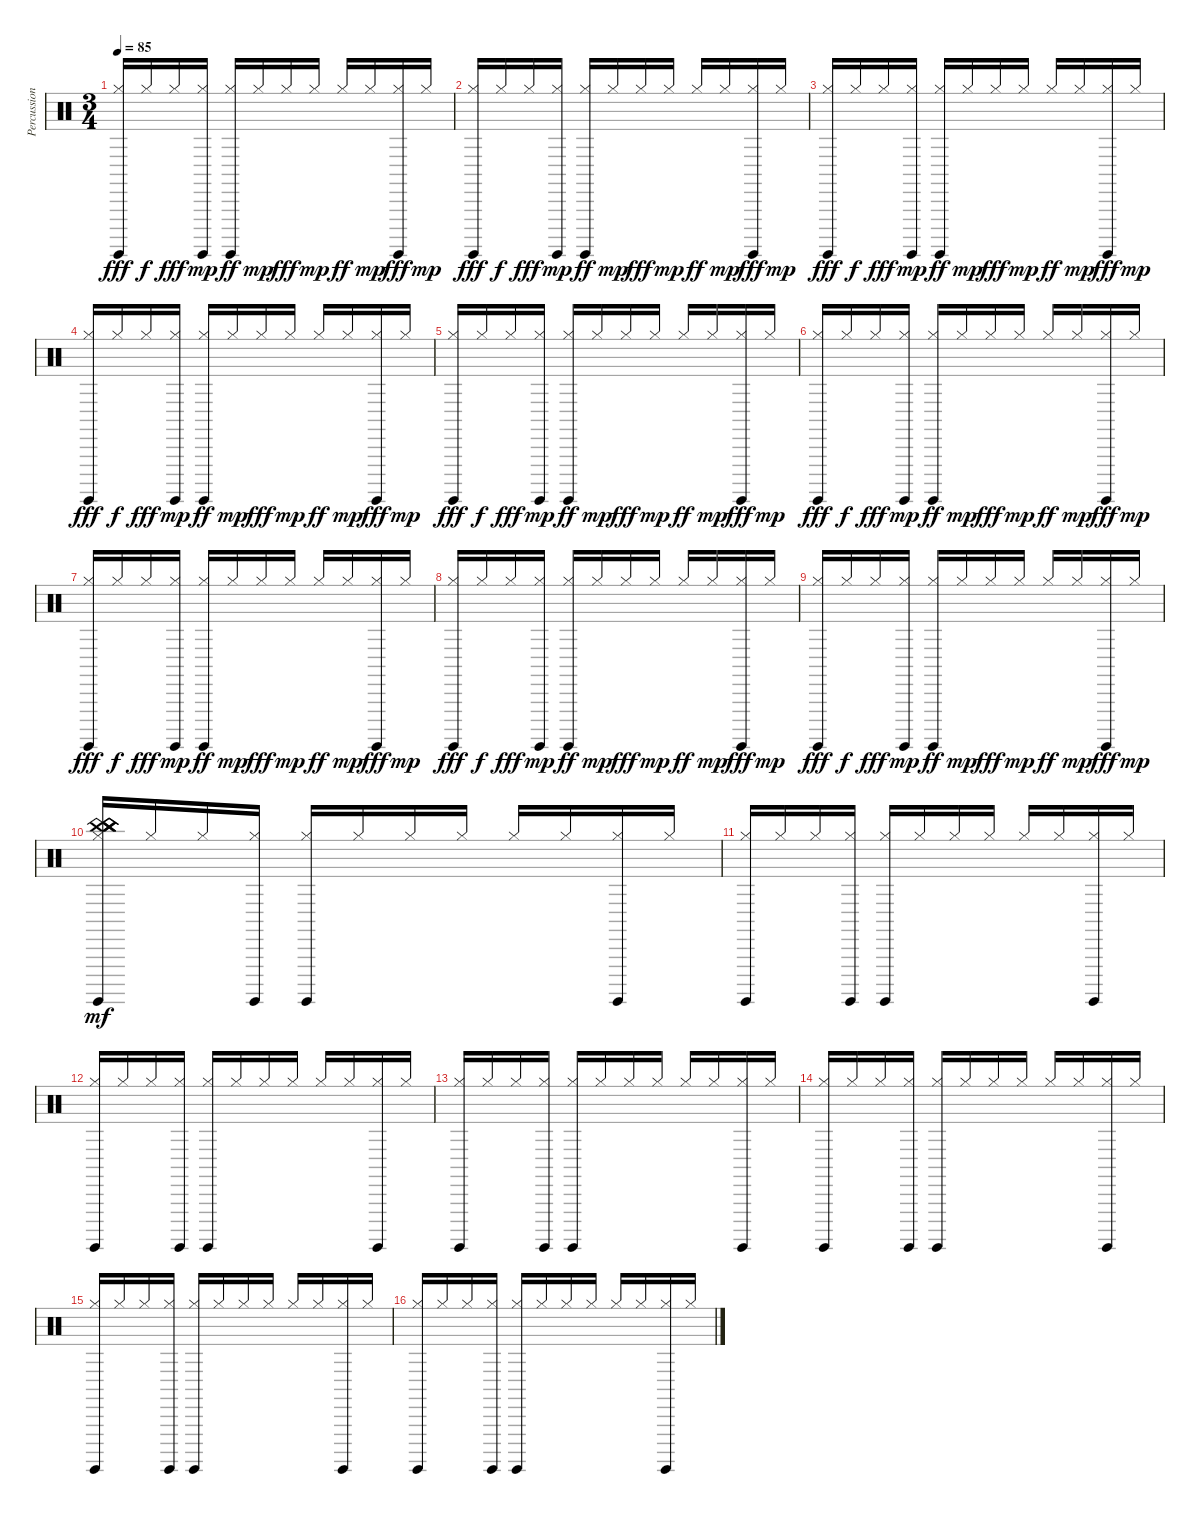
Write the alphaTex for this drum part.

\track ("Percussion" "Percussion") {instrument percussion}
\staff {score}
\articulation defaults
\ts (3 4)
\tempo 85
\clef neutral
\ks c
("Surdo (hit)" "Hi-Hat (closed)").16{dy fff} "Hi-Hat (closed)".16{dy f} "Hi-Hat (closed)".16{dy fff} ("Surdo (hit)" "Hi-Hat (closed)").16{dy mp} ("Surdo (hit)" "Hi-Hat (closed)").16{dy ff} "Hi-Hat (closed)".16{dy mp} "Hi-Hat (closed)".16{dy fff} "Hi-Hat (closed)".16{dy mp} "Hi-Hat (closed)".16{dy ff} "Hi-Hat (closed)".16{dy mp} ("Surdo (hit)" "Hi-Hat (closed)").16{dy fff} "Hi-Hat (closed)".16{dy mp} |
("Surdo (hit)" "Hi-Hat (closed)").16{dy fff volume 7} "Hi-Hat (closed)".16{dy f} "Hi-Hat (closed)".16{dy fff} ("Surdo (hit)" "Hi-Hat (closed)").16{dy mp} ("Surdo (hit)" "Hi-Hat (closed)").16{dy ff} "Hi-Hat (closed)".16{dy mp} "Hi-Hat (closed)".16{dy fff} "Hi-Hat (closed)".16{dy mp} "Hi-Hat (closed)".16{dy ff} "Hi-Hat (closed)".16{dy mp} ("Surdo (hit)" "Hi-Hat (closed)").16{dy fff} "Hi-Hat (closed)".16{dy mp} |
("Surdo (hit)" "Hi-Hat (closed)").16{dy fff} "Hi-Hat (closed)".16{dy f} "Hi-Hat (closed)".16{dy fff} ("Surdo (hit)" "Hi-Hat (closed)").16{dy mp} ("Surdo (hit)" "Hi-Hat (closed)").16{dy ff} "Hi-Hat (closed)".16{dy mp} "Hi-Hat (closed)".16{dy fff} "Hi-Hat (closed)".16{dy mp} "Hi-Hat (closed)".16{dy ff} "Hi-Hat (closed)".16{dy mp} ("Surdo (hit)" "Hi-Hat (closed)").16{dy fff} "Hi-Hat (closed)".16{dy mp} |
("Surdo (hit)" "Hi-Hat (closed)").16{dy fff} "Hi-Hat (closed)".16{dy f} "Hi-Hat (closed)".16{dy fff} ("Surdo (hit)" "Hi-Hat (closed)").16{dy mp} ("Surdo (hit)" "Hi-Hat (closed)").16{dy ff} "Hi-Hat (closed)".16{dy mp} "Hi-Hat (closed)".16{dy fff} "Hi-Hat (closed)".16{dy mp} "Hi-Hat (closed)".16{dy ff} "Hi-Hat (closed)".16{dy mp} ("Surdo (hit)" "Hi-Hat (closed)").16{dy fff} "Hi-Hat (closed)".16{dy mp} |
("Surdo (hit)" "Hi-Hat (closed)").16{dy fff} "Hi-Hat (closed)".16{dy f} "Hi-Hat (closed)".16{dy fff} ("Surdo (hit)" "Hi-Hat (closed)").16{dy mp} ("Surdo (hit)" "Hi-Hat (closed)").16{dy ff} "Hi-Hat (closed)".16{dy mp} "Hi-Hat (closed)".16{dy fff} "Hi-Hat (closed)".16{dy mp} "Hi-Hat (closed)".16{dy ff} "Hi-Hat (closed)".16{dy mp} ("Surdo (hit)" "Hi-Hat (closed)").16{dy fff} "Hi-Hat (closed)".16{dy mp} |
("Surdo (hit)" "Hi-Hat (closed)").16{dy fff volume 7} "Hi-Hat (closed)".16{dy f} "Hi-Hat (closed)".16{dy fff} ("Surdo (hit)" "Hi-Hat (closed)").16{dy mp} ("Surdo (hit)" "Hi-Hat (closed)").16{dy ff} "Hi-Hat (closed)".16{dy mp} "Hi-Hat (closed)".16{dy fff} "Hi-Hat (closed)".16{dy mp} "Hi-Hat (closed)".16{dy ff} "Hi-Hat (closed)".16{dy mp} ("Surdo (hit)" "Hi-Hat (closed)").16{dy fff} "Hi-Hat (closed)".16{dy mp} |
("Surdo (hit)" "Hi-Hat (closed)").16{dy fff} "Hi-Hat (closed)".16{dy f} "Hi-Hat (closed)".16{dy fff} ("Surdo (hit)" "Hi-Hat (closed)").16{dy mp} ("Surdo (hit)" "Hi-Hat (closed)").16{dy ff} "Hi-Hat (closed)".16{dy mp} "Hi-Hat (closed)".16{dy fff} "Hi-Hat (closed)".16{dy mp} "Hi-Hat (closed)".16{dy ff} "Hi-Hat (closed)".16{dy mp} ("Surdo (hit)" "Hi-Hat (closed)").16{dy fff} "Hi-Hat (closed)".16{dy mp} |
("Surdo (hit)" "Hi-Hat (closed)").16{dy fff} "Hi-Hat (closed)".16{dy f} "Hi-Hat (closed)".16{dy fff} ("Surdo (hit)" "Hi-Hat (closed)").16{dy mp} ("Surdo (hit)" "Hi-Hat (closed)").16{dy ff} "Hi-Hat (closed)".16{dy mp} "Hi-Hat (closed)".16{dy fff} "Hi-Hat (closed)".16{dy mp} "Hi-Hat (closed)".16{dy ff} "Hi-Hat (closed)".16{dy mp} ("Surdo (hit)" "Hi-Hat (closed)").16{dy fff} "Hi-Hat (closed)".16{dy mp} |
("Surdo (hit)" "Hi-Hat (closed)").16{dy fff} "Hi-Hat (closed)".16{dy f} "Hi-Hat (closed)".16{dy fff} ("Surdo (hit)" "Hi-Hat (closed)").16{dy mp} ("Surdo (hit)" "Hi-Hat (closed)").16{dy ff} "Hi-Hat (closed)".16{dy mp} "Hi-Hat (closed)".16{dy fff} "Hi-Hat (closed)".16{dy mp} "Hi-Hat (closed)".16{dy ff} "Hi-Hat (closed)".16{dy mp} ("Surdo (hit)" "Hi-Hat (closed)").16{dy fff} "Hi-Hat (closed)".16{dy mp} |
("China (hit)" "China (hit)" "China (hit)" "China (hit)" "Surdo (hit)" "Hi-Hat (closed)").16{dy mf volume 16} "Hi-Hat (closed)".16 "Hi-Hat (closed)".16 ("Surdo (hit)" "Hi-Hat (closed)").16 ("Surdo (hit)" "Hi-Hat (closed)").16 "Hi-Hat (closed)".16 "Hi-Hat (closed)".16 "Hi-Hat (closed)".16 "Hi-Hat (closed)".16 "Hi-Hat (closed)".16 ("Surdo (hit)" "Hi-Hat (closed)").16 "Hi-Hat (closed)".16 |
("Surdo (hit)" "Hi-Hat (closed)").16 "Hi-Hat (closed)".16 "Hi-Hat (closed)".16 ("Surdo (hit)" "Hi-Hat (closed)").16 ("Surdo (hit)" "Hi-Hat (closed)").16 "Hi-Hat (closed)".16 "Hi-Hat (closed)".16 "Hi-Hat (closed)".16 "Hi-Hat (closed)".16 "Hi-Hat (closed)".16 ("Surdo (hit)" "Hi-Hat (closed)").16 "Hi-Hat (closed)".16 |
("Surdo (hit)" "Hi-Hat (closed)").16 "Hi-Hat (closed)".16 "Hi-Hat (closed)".16 ("Surdo (hit)" "Hi-Hat (closed)").16 ("Surdo (hit)" "Hi-Hat (closed)").16 "Hi-Hat (closed)".16 "Hi-Hat (closed)".16 "Hi-Hat (closed)".16 "Hi-Hat (closed)".16 "Hi-Hat (closed)".16 ("Surdo (hit)" "Hi-Hat (closed)").16 "Hi-Hat (closed)".16 |
("Surdo (hit)" "Hi-Hat (closed)").16 "Hi-Hat (closed)".16 "Hi-Hat (closed)".16 ("Surdo (hit)" "Hi-Hat (closed)").16 ("Surdo (hit)" "Hi-Hat (closed)").16 "Hi-Hat (closed)".16 "Hi-Hat (closed)".16 "Hi-Hat (closed)".16 "Hi-Hat (closed)".16 "Hi-Hat (closed)".16 ("Surdo (hit)" "Hi-Hat (closed)").16 "Hi-Hat (closed)".16 |
("Surdo (hit)" "Hi-Hat (closed)").16 "Hi-Hat (closed)".16 "Hi-Hat (closed)".16 ("Surdo (hit)" "Hi-Hat (closed)").16 ("Surdo (hit)" "Hi-Hat (closed)").16 "Hi-Hat (closed)".16 "Hi-Hat (closed)".16 "Hi-Hat (closed)".16 "Hi-Hat (closed)".16 "Hi-Hat (closed)".16 ("Surdo (hit)" "Hi-Hat (closed)").16 "Hi-Hat (closed)".16 |
("Surdo (hit)" "Hi-Hat (closed)").16 "Hi-Hat (closed)".16 "Hi-Hat (closed)".16 ("Surdo (hit)" "Hi-Hat (closed)").16 ("Surdo (hit)" "Hi-Hat (closed)").16 "Hi-Hat (closed)".16 "Hi-Hat (closed)".16 "Hi-Hat (closed)".16 "Hi-Hat (closed)".16 "Hi-Hat (closed)".16 ("Surdo (hit)" "Hi-Hat (closed)").16 "Hi-Hat (closed)".16 |
("Surdo (hit)" "Hi-Hat (closed)").16 "Hi-Hat (closed)".16 "Hi-Hat (closed)".16 ("Surdo (hit)" "Hi-Hat (closed)").16 ("Surdo (hit)" "Hi-Hat (closed)").16 "Hi-Hat (closed)".16 "Hi-Hat (closed)".16 "Hi-Hat (closed)".16 "Hi-Hat (closed)".16 "Hi-Hat (closed)".16 ("Surdo (hit)" "Hi-Hat (closed)").16 "Hi-Hat (closed)".16
